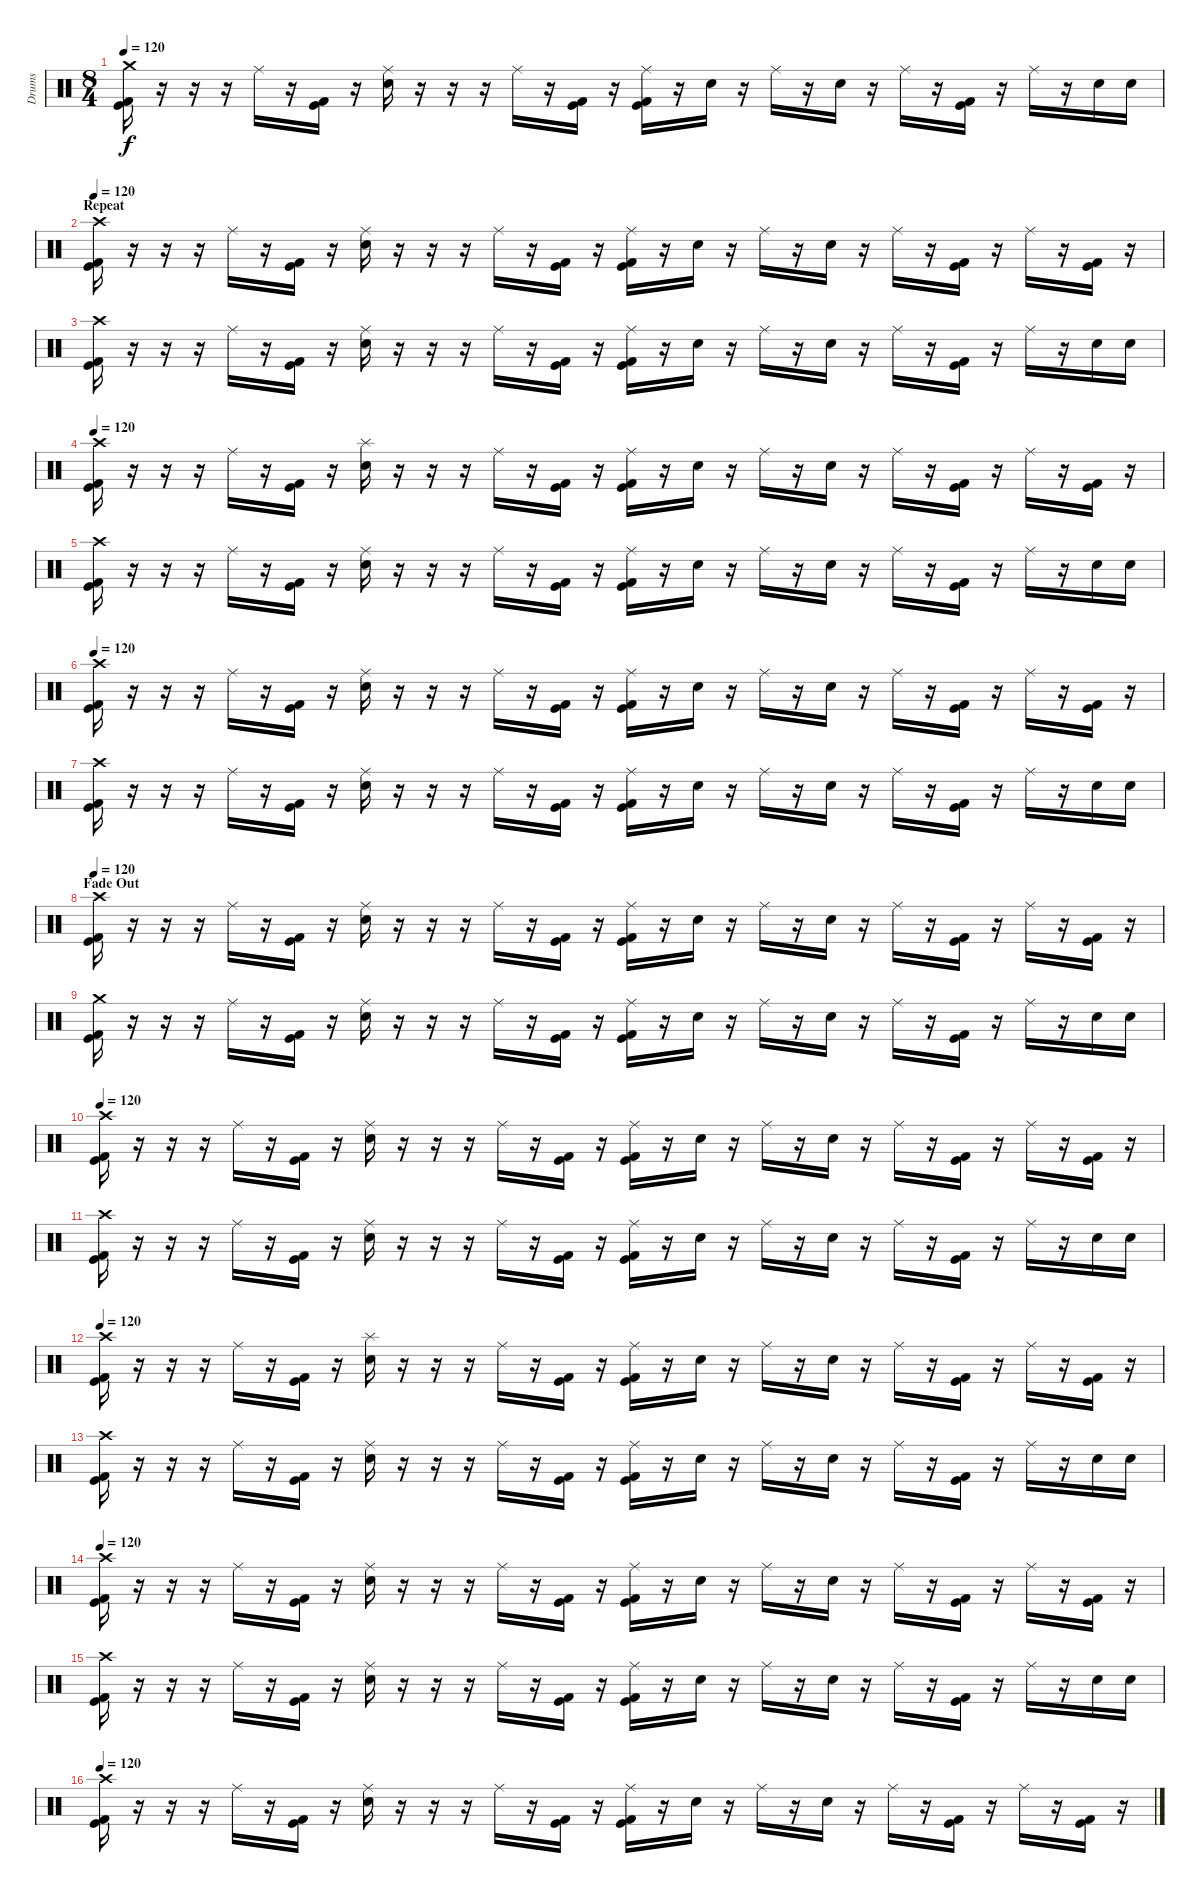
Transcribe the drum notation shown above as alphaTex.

\track ("Drums" "Drums") {instrument percussion}
\staff {score}
\articulation defaults
\ts (8 4)
\tempo 120
\clef neutral
\ks c
("Crash medium (hit)" "Kick (hit)" "Kick (hit) 2").16{dy f} r.16 r.16 r.16 "Ride (middle)".16 r.16 ("Kick (hit) 2" "Kick (hit)").16 r.16 ("Ride (middle)" "Electric Snare (hit)").16 r.16 r.16 r.16 "Ride (middle)".16 r.16 ("Kick (hit) 2" "Kick (hit)").16 r.16 ("Ride (middle)" "Kick (hit) 2" "Kick (hit)").16 r.16 "Electric Snare (hit)".16 r.16 "Ride (middle)".16 r.16 "Electric Snare (hit)".16 r.16 "Ride (middle)".16 r.16 ("Kick (hit) 2" "Kick (hit)").16 r.16 "Ride (middle)".16 r.16 "Electric Snare (hit)".16 "Electric Snare (hit)".16 |
\section ("" "Repeat")
\tempo 120
("Crash high (hit)" "Kick (hit)" "Kick (hit) 2").16 r.16 r.16 r.16 "Ride (middle)".16 r.16 ("Kick (hit) 2" "Kick (hit)").16 r.16 ("Ride (middle)" "Electric Snare (hit)").16 r.16 r.16 r.16 "Ride (middle)".16 r.16 ("Kick (hit) 2" "Kick (hit)").16 r.16 ("Ride (middle)" "Kick (hit) 2" "Kick (hit)").16 r.16 "Electric Snare (hit)".16 r.16 "Ride (middle)".16 r.16 "Electric Snare (hit)".16 r.16 "Ride (middle)".16 r.16 ("Kick (hit) 2" "Kick (hit)").16 r.16 "Ride (middle)".16 r.16 ("Kick (hit) 2" "Kick (hit)").16 r.16 |
("Crash high (hit)" "Kick (hit)" "Kick (hit) 2").16 r.16 r.16 r.16 "Ride (middle)".16 r.16 ("Kick (hit) 2" "Kick (hit)").16 r.16 ("Ride (middle)" "Electric Snare (hit)").16 r.16 r.16 r.16 "Ride (middle)".16 r.16 ("Kick (hit) 2" "Kick (hit)").16 r.16 ("Ride (middle)" "Kick (hit) 2" "Kick (hit)").16 r.16 "Electric Snare (hit)".16 r.16 "Ride (middle)".16 r.16 "Electric Snare (hit)".16 r.16 "Ride (middle)".16 r.16 ("Kick (hit) 2" "Kick (hit)").16 r.16 "Ride (middle)".16 r.16 "Electric Snare (hit)".16 "Electric Snare (hit)".16 |
\tempo 120
("Crash high (hit)" "Kick (hit)" "Kick (hit) 2").16 r.16 r.16 r.16 "Ride (middle)".16 r.16 ("Kick (hit) 2" "Kick (hit)").16 r.16 ("Splash (hit)" "Electric Snare (hit)").16 r.16 r.16 r.16 "Ride (middle)".16 r.16 ("Kick (hit) 2" "Kick (hit)").16 r.16 ("Ride (middle)" "Kick (hit) 2" "Kick (hit)").16 r.16 "Electric Snare (hit)".16 r.16 "Ride (middle)".16 r.16 "Electric Snare (hit)".16 r.16 "Ride (middle)".16 r.16 ("Kick (hit) 2" "Kick (hit)").16 r.16 "Ride (middle)".16 r.16 ("Kick (hit) 2" "Kick (hit)").16 r.16 |
("Crash high (hit)" "Kick (hit)" "Kick (hit) 2").16 r.16 r.16 r.16 "Ride (middle)".16 r.16 ("Kick (hit) 2" "Kick (hit)").16 r.16 ("Ride (middle)" "Electric Snare (hit)").16 r.16 r.16 r.16 "Ride (middle)".16 r.16 ("Kick (hit) 2" "Kick (hit)").16 r.16 ("Ride (middle)" "Kick (hit) 2" "Kick (hit)").16 r.16 "Electric Snare (hit)".16 r.16 "Ride (middle)".16 r.16 "Electric Snare (hit)".16 r.16 "Ride (middle)".16 r.16 ("Kick (hit) 2" "Kick (hit)").16 r.16 "Ride (middle)".16 r.16 "Electric Snare (hit)".16 "Electric Snare (hit)".16 |
\tempo 120
("Crash high (hit)" "Kick (hit)" "Kick (hit) 2").16 r.16 r.16 r.16 "Ride (middle)".16 r.16 ("Kick (hit) 2" "Kick (hit)").16 r.16 ("Ride (middle)" "Electric Snare (hit)").16 r.16 r.16 r.16 "Ride (middle)".16 r.16 ("Kick (hit) 2" "Kick (hit)").16 r.16 ("Ride (middle)" "Kick (hit) 2" "Kick (hit)").16 r.16 "Electric Snare (hit)".16 r.16 "Ride (middle)".16 r.16 "Electric Snare (hit)".16 r.16 "Ride (middle)".16 r.16 ("Kick (hit) 2" "Kick (hit)").16 r.16 "Ride (middle)".16 r.16 ("Kick (hit) 2" "Kick (hit)").16 r.16 |
("Crash high (hit)" "Kick (hit)" "Kick (hit) 2").16 r.16 r.16 r.16 "Ride (middle)".16 r.16 ("Kick (hit) 2" "Kick (hit)").16 r.16 ("Ride (middle)" "Electric Snare (hit)").16 r.16 r.16 r.16 "Ride (middle)".16 r.16 ("Kick (hit) 2" "Kick (hit)").16 r.16 ("Ride (middle)" "Kick (hit) 2" "Kick (hit)").16 r.16 "Electric Snare (hit)".16 r.16 "Ride (middle)".16 r.16 "Electric Snare (hit)".16 r.16 "Ride (middle)".16 r.16 ("Kick (hit) 2" "Kick (hit)").16 r.16 "Ride (middle)".16 r.16 "Electric Snare (hit)".16 "Electric Snare (hit)".16 |
\section ("" "Fade Out")
\tempo 120
("Crash high (hit)" "Kick (hit)" "Kick (hit) 2").16 r.16 r.16 r.16 "Ride (middle)".16 r.16 ("Kick (hit) 2" "Kick (hit)").16 r.16 ("Ride (middle)" "Electric Snare (hit)").16 r.16 r.16 r.16 "Ride (middle)".16 r.16 ("Kick (hit) 2" "Kick (hit)").16 r.16 ("Ride (middle)" "Kick (hit) 2" "Kick (hit)").16 r.16 "Electric Snare (hit)".16 r.16 "Ride (middle)".16 r.16 "Electric Snare (hit)".16 r.16 "Ride (middle)".16 r.16 ("Kick (hit) 2" "Kick (hit)").16 r.16 "Ride (middle)".16 r.16 ("Kick (hit) 2" "Kick (hit)").16 r.16 |
("Crash medium (hit)" "Kick (hit)" "Kick (hit) 2").16 r.16 r.16 r.16 "Ride (middle)".16 r.16 ("Kick (hit) 2" "Kick (hit)").16 r.16 ("Ride (middle)" "Electric Snare (hit)").16 r.16 r.16 r.16 "Ride (middle)".16 r.16 ("Kick (hit) 2" "Kick (hit)").16 r.16 ("Ride (middle)" "Kick (hit) 2" "Kick (hit)").16 r.16 "Electric Snare (hit)".16 r.16 "Ride (middle)".16 r.16 "Electric Snare (hit)".16 r.16 "Ride (middle)".16 r.16 ("Kick (hit) 2" "Kick (hit)").16 r.16 "Ride (middle)".16 r.16 "Electric Snare (hit)".16 "Electric Snare (hit)".16 |
\tempo 120
("Crash high (hit)" "Kick (hit)" "Kick (hit) 2").16 r.16 r.16 r.16 "Ride (middle)".16 r.16 ("Kick (hit) 2" "Kick (hit)").16 r.16 ("Ride (middle)" "Electric Snare (hit)").16 r.16 r.16 r.16 "Ride (middle)".16 r.16 ("Kick (hit) 2" "Kick (hit)").16 r.16 ("Ride (middle)" "Kick (hit) 2" "Kick (hit)").16 r.16 "Electric Snare (hit)".16 r.16 "Ride (middle)".16 r.16 "Electric Snare (hit)".16 r.16 "Ride (middle)".16 r.16 ("Kick (hit) 2" "Kick (hit)").16 r.16 "Ride (middle)".16 r.16 ("Kick (hit) 2" "Kick (hit)").16 r.16 |
("Crash high (hit)" "Kick (hit)" "Kick (hit) 2").16 r.16 r.16 r.16 "Ride (middle)".16 r.16 ("Kick (hit) 2" "Kick (hit)").16 r.16 ("Ride (middle)" "Electric Snare (hit)").16 r.16 r.16 r.16 "Ride (middle)".16 r.16 ("Kick (hit) 2" "Kick (hit)").16 r.16 ("Ride (middle)" "Kick (hit) 2" "Kick (hit)").16 r.16 "Electric Snare (hit)".16 r.16 "Ride (middle)".16 r.16 "Electric Snare (hit)".16 r.16 "Ride (middle)".16 r.16 ("Kick (hit) 2" "Kick (hit)").16 r.16 "Ride (middle)".16 r.16 "Electric Snare (hit)".16 "Electric Snare (hit)".16 |
\tempo 120
("Crash high (hit)" "Kick (hit)" "Kick (hit) 2").16 r.16 r.16 r.16 "Ride (middle)".16 r.16 ("Kick (hit) 2" "Kick (hit)").16 r.16 ("Splash (hit)" "Electric Snare (hit)").16 r.16 r.16 r.16 "Ride (middle)".16 r.16 ("Kick (hit) 2" "Kick (hit)").16 r.16 ("Ride (middle)" "Kick (hit) 2" "Kick (hit)").16 r.16 "Electric Snare (hit)".16 r.16 "Ride (middle)".16 r.16 "Electric Snare (hit)".16 r.16 "Ride (middle)".16 r.16 ("Kick (hit) 2" "Kick (hit)").16 r.16 "Ride (middle)".16 r.16 ("Kick (hit) 2" "Kick (hit)").16 r.16 |
("Crash high (hit)" "Kick (hit)" "Kick (hit) 2").16 r.16 r.16 r.16 "Ride (middle)".16 r.16 ("Kick (hit) 2" "Kick (hit)").16 r.16 ("Ride (middle)" "Electric Snare (hit)").16 r.16 r.16 r.16 "Ride (middle)".16 r.16 ("Kick (hit) 2" "Kick (hit)").16 r.16 ("Ride (middle)" "Kick (hit) 2" "Kick (hit)").16 r.16 "Electric Snare (hit)".16 r.16 "Ride (middle)".16 r.16 "Electric Snare (hit)".16 r.16 "Ride (middle)".16 r.16 ("Kick (hit) 2" "Kick (hit)").16 r.16 "Ride (middle)".16 r.16 "Electric Snare (hit)".16 "Electric Snare (hit)".16 |
\tempo 120
("Crash high (hit)" "Kick (hit)" "Kick (hit) 2").16 r.16 r.16 r.16 "Ride (middle)".16 r.16 ("Kick (hit) 2" "Kick (hit)").16 r.16 ("Ride (middle)" "Electric Snare (hit)").16 r.16 r.16 r.16 "Ride (middle)".16 r.16 ("Kick (hit) 2" "Kick (hit)").16 r.16 ("Ride (middle)" "Kick (hit) 2" "Kick (hit)").16 r.16 "Electric Snare (hit)".16 r.16 "Ride (middle)".16 r.16 "Electric Snare (hit)".16 r.16 "Ride (middle)".16 r.16 ("Kick (hit) 2" "Kick (hit)").16 r.16 "Ride (middle)".16 r.16 ("Kick (hit) 2" "Kick (hit)").16 r.16 |
("Crash high (hit)" "Kick (hit)" "Kick (hit) 2").16 r.16 r.16 r.16 "Ride (middle)".16 r.16 ("Kick (hit) 2" "Kick (hit)").16 r.16 ("Ride (middle)" "Electric Snare (hit)").16 r.16 r.16 r.16 "Ride (middle)".16 r.16 ("Kick (hit) 2" "Kick (hit)").16 r.16 ("Ride (middle)" "Kick (hit) 2" "Kick (hit)").16 r.16 "Electric Snare (hit)".16 r.16 "Ride (middle)".16 r.16 "Electric Snare (hit)".16 r.16 "Ride (middle)".16 r.16 ("Kick (hit) 2" "Kick (hit)").16 r.16 "Ride (middle)".16 r.16 "Electric Snare (hit)".16 "Electric Snare (hit)".16 |
\tempo 120
("Crash high (hit)" "Kick (hit)" "Kick (hit) 2").16 r.16 r.16 r.16 "Ride (middle)".16 r.16 ("Kick (hit) 2" "Kick (hit)").16 r.16 ("Ride (middle)" "Electric Snare (hit)").16 r.16 r.16 r.16 "Ride (middle)".16 r.16 ("Kick (hit) 2" "Kick (hit)").16 r.16 ("Ride (middle)" "Kick (hit) 2" "Kick (hit)").16 r.16 "Electric Snare (hit)".16 r.16 "Ride (middle)".16 r.16 "Electric Snare (hit)".16 r.16 "Ride (middle)".16 r.16 ("Kick (hit) 2" "Kick (hit)").16 r.16 "Ride (middle)".16 r.16 ("Kick (hit) 2" "Kick (hit)").16 r.16
